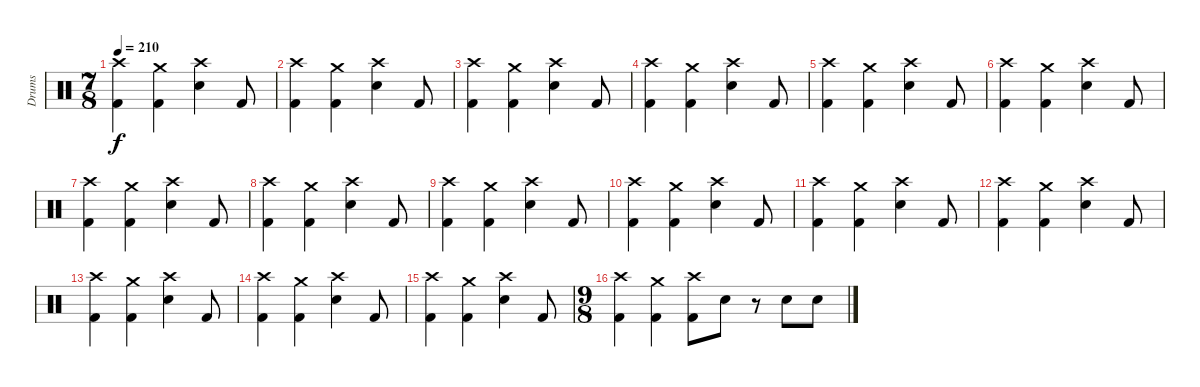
\track ("Drums" "Drums") {instrument percussion}
\staff {score}
\articulation defaults
\ts (7 8)
\tempo 210
\clef neutral
\ks c
("Crash high (hit)" "Kick (hit) 2").4{dy f} ("Crash medium (hit)" "Kick (hit) 2").4 ("Crash high (hit)" "Electric Snare (hit)").4 "Kick (hit) 2".8 |
("Crash high (hit)" "Kick (hit) 2").4 ("Crash medium (hit)" "Kick (hit) 2").4 ("Crash high (hit)" "Electric Snare (hit)").4 "Kick (hit) 2".8 |
("Crash high (hit)" "Kick (hit) 2").4 ("Crash medium (hit)" "Kick (hit) 2").4 ("Crash high (hit)" "Electric Snare (hit)").4 "Kick (hit) 2".8 |
("Crash high (hit)" "Kick (hit) 2").4 ("Crash medium (hit)" "Kick (hit) 2").4 ("Crash high (hit)" "Electric Snare (hit)").4 "Kick (hit) 2".8 |
("Crash high (hit)" "Kick (hit) 2").4 ("Crash medium (hit)" "Kick (hit) 2").4 ("Crash high (hit)" "Electric Snare (hit)").4 "Kick (hit) 2".8 |
("Crash high (hit)" "Kick (hit) 2").4 ("Crash medium (hit)" "Kick (hit) 2").4 ("Crash high (hit)" "Electric Snare (hit)").4 "Kick (hit) 2".8 |
("Crash high (hit)" "Kick (hit) 2").4 ("Crash medium (hit)" "Kick (hit) 2").4 ("Crash high (hit)" "Electric Snare (hit)").4 "Kick (hit) 2".8 |
("Crash high (hit)" "Kick (hit) 2").4 ("Crash medium (hit)" "Kick (hit) 2").4 ("Crash high (hit)" "Electric Snare (hit)").4 "Kick (hit) 2".8 |
("Crash high (hit)" "Kick (hit) 2").4 ("Crash medium (hit)" "Kick (hit) 2").4 ("Crash high (hit)" "Electric Snare (hit)").4 "Kick (hit) 2".8 |
("Crash high (hit)" "Kick (hit) 2").4 ("Crash medium (hit)" "Kick (hit) 2").4 ("Crash high (hit)" "Electric Snare (hit)").4 "Kick (hit) 2".8 |
("Crash high (hit)" "Kick (hit) 2").4 ("Crash medium (hit)" "Kick (hit) 2").4 ("Crash high (hit)" "Electric Snare (hit)").4 "Kick (hit) 2".8 |
("Crash high (hit)" "Kick (hit) 2").4 ("Crash medium (hit)" "Kick (hit) 2").4 ("Crash high (hit)" "Electric Snare (hit)").4 "Kick (hit) 2".8 |
("Crash high (hit)" "Kick (hit) 2").4 ("Crash medium (hit)" "Kick (hit) 2").4 ("Crash high (hit)" "Electric Snare (hit)").4 "Kick (hit) 2".8 |
("Crash high (hit)" "Kick (hit) 2").4 ("Crash medium (hit)" "Kick (hit) 2").4 ("Crash high (hit)" "Electric Snare (hit)").4 "Kick (hit) 2".8 |
("Crash high (hit)" "Kick (hit) 2").4 ("Crash medium (hit)" "Kick (hit) 2").4 ("Crash high (hit)" "Electric Snare (hit)").4 "Kick (hit) 2".8 |
\ts (9 8)
("Crash high (hit)" "Kick (hit) 2").4 ("Crash medium (hit)" "Kick (hit) 2").4 ("Crash high (hit)" "Kick (hit) 2").8 "Electric Snare (hit)".8 r.8 "Electric Snare (hit)".8 "Electric Snare (hit)".8
